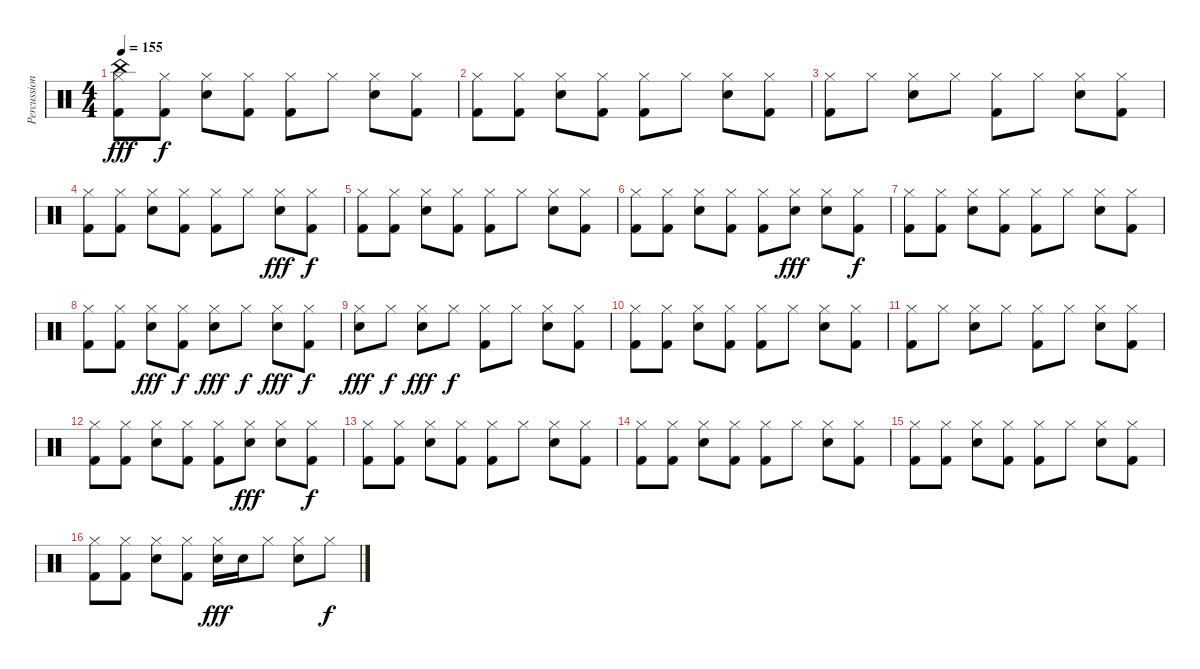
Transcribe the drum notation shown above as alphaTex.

\track ("Percussions" "Percussion") {instrument percussion}
\staff {score}
\articulation defaults
\ts (4 4)
\tempo 155
\clef neutral
\ks c
("Hi-Hat (closed)" "Kick (hit) 2" "China (hit)").8{dy fff} ("Hi-Hat (closed)" "Kick (hit) 2").8{dy f} ("Hi-Hat (closed)" "Electric Snare (hit)").8 ("Hi-Hat (closed)" "Kick (hit) 2").8 ("Hi-Hat (closed)" "Kick (hit) 2").8 "Hi-Hat (closed)".8 ("Hi-Hat (closed)" "Electric Snare (hit)").8 ("Hi-Hat (closed)" "Kick (hit) 2").8 |
("Hi-Hat (closed)" "Kick (hit) 2").8 ("Hi-Hat (closed)" "Kick (hit) 2").8 ("Hi-Hat (closed)" "Electric Snare (hit)").8 ("Hi-Hat (closed)" "Kick (hit) 2").8 ("Hi-Hat (closed)" "Kick (hit) 2").8 "Hi-Hat (closed)".8 ("Hi-Hat (closed)" "Electric Snare (hit)").8 ("Hi-Hat (closed)" "Kick (hit) 2").8 |
("Hi-Hat (closed)" "Kick (hit) 2").8 "Hi-Hat (closed)".8 ("Hi-Hat (closed)" "Electric Snare (hit)").8 "Hi-Hat (closed)".8 ("Hi-Hat (closed)" "Kick (hit) 2").8 "Hi-Hat (closed)".8 ("Hi-Hat (closed)" "Electric Snare (hit)").8 ("Hi-Hat (closed)" "Kick (hit) 2").8 |
("Hi-Hat (closed)" "Kick (hit) 2").8 ("Hi-Hat (closed)" "Kick (hit) 2").8 ("Hi-Hat (closed)" "Electric Snare (hit)").8 ("Hi-Hat (closed)" "Kick (hit) 2").8 ("Hi-Hat (closed)" "Kick (hit) 2").8 "Hi-Hat (closed)".8 ("Hi-Hat (closed)" "Electric Snare (hit)").8{dy fff} ("Hi-Hat (closed)" "Kick (hit) 2").8{dy f} |
("Hi-Hat (closed)" "Kick (hit) 2").8 ("Hi-Hat (closed)" "Kick (hit) 2").8 ("Hi-Hat (closed)" "Electric Snare (hit)").8 ("Hi-Hat (closed)" "Kick (hit) 2").8 ("Hi-Hat (closed)" "Kick (hit) 2").8 "Hi-Hat (closed)".8 ("Hi-Hat (closed)" "Electric Snare (hit)").8 ("Hi-Hat (closed)" "Kick (hit) 2").8 |
("Hi-Hat (closed)" "Kick (hit) 2").8 ("Hi-Hat (closed)" "Kick (hit) 2").8 ("Hi-Hat (closed)" "Electric Snare (hit)").8 ("Hi-Hat (closed)" "Kick (hit) 2").8 ("Hi-Hat (closed)" "Kick (hit) 2").8 ("Hi-Hat (closed)" "Electric Snare (hit)").8{dy fff} ("Hi-Hat (closed)" "Electric Snare (hit)").8 ("Hi-Hat (closed)" "Kick (hit) 2").8{dy f} |
("Hi-Hat (closed)" "Kick (hit) 2").8 ("Hi-Hat (closed)" "Kick (hit) 2").8 ("Hi-Hat (closed)" "Electric Snare (hit)").8 ("Hi-Hat (closed)" "Kick (hit) 2").8 ("Hi-Hat (closed)" "Kick (hit) 2").8 "Hi-Hat (closed)".8 ("Hi-Hat (closed)" "Electric Snare (hit)").8 ("Hi-Hat (closed)" "Kick (hit) 2").8 |
("Hi-Hat (closed)" "Kick (hit) 2").8 ("Hi-Hat (closed)" "Kick (hit) 2").8 ("Hi-Hat (closed)" "Electric Snare (hit)").8{dy fff} ("Hi-Hat (closed)" "Kick (hit) 2").8{dy f} ("Hi-Hat (closed)" "Electric Snare (hit)").8{dy fff} "Hi-Hat (closed)".8{dy f} ("Hi-Hat (closed)" "Electric Snare (hit)").8{dy fff} ("Hi-Hat (closed)" "Kick (hit) 2").8{dy f} |
("Hi-Hat (closed)" "Electric Snare (hit)").8{dy fff} "Hi-Hat (closed)".8{dy f} ("Hi-Hat (closed)" "Electric Snare (hit)").8{dy fff} "Hi-Hat (closed)".8{dy f} ("Hi-Hat (closed)" "Kick (hit) 2").8 "Hi-Hat (closed)".8 ("Hi-Hat (closed)" "Electric Snare (hit)").8 ("Hi-Hat (closed)" "Kick (hit) 2").8 |
("Hi-Hat (closed)" "Kick (hit) 2").8 ("Hi-Hat (closed)" "Kick (hit) 2").8 ("Hi-Hat (closed)" "Electric Snare (hit)").8 ("Hi-Hat (closed)" "Kick (hit) 2").8 ("Hi-Hat (closed)" "Kick (hit) 2").8 "Hi-Hat (closed)".8 ("Hi-Hat (closed)" "Electric Snare (hit)").8 ("Hi-Hat (closed)" "Kick (hit) 2").8 |
("Hi-Hat (closed)" "Kick (hit) 2").8 "Hi-Hat (closed)".8 ("Hi-Hat (closed)" "Electric Snare (hit)").8 "Hi-Hat (closed)".8 ("Hi-Hat (closed)" "Kick (hit) 2").8 "Hi-Hat (closed)".8 ("Hi-Hat (closed)" "Electric Snare (hit)").8 ("Hi-Hat (closed)" "Kick (hit) 2").8 |
("Hi-Hat (closed)" "Kick (hit) 2").8 ("Hi-Hat (closed)" "Kick (hit) 2").8 ("Hi-Hat (closed)" "Electric Snare (hit)").8 ("Hi-Hat (closed)" "Kick (hit) 2").8 ("Hi-Hat (closed)" "Kick (hit) 2").8 ("Hi-Hat (closed)" "Electric Snare (hit)").8{dy fff} ("Hi-Hat (closed)" "Electric Snare (hit)").8 ("Hi-Hat (closed)" "Kick (hit) 2").8{dy f} |
("Hi-Hat (closed)" "Kick (hit) 2").8 ("Hi-Hat (closed)" "Kick (hit) 2").8 ("Hi-Hat (closed)" "Electric Snare (hit)").8 ("Hi-Hat (closed)" "Kick (hit) 2").8 ("Hi-Hat (closed)" "Kick (hit) 2").8 "Hi-Hat (closed)".8 ("Hi-Hat (closed)" "Electric Snare (hit)").8 ("Hi-Hat (closed)" "Kick (hit) 2").8 |
("Hi-Hat (closed)" "Kick (hit) 2").8 ("Hi-Hat (closed)" "Kick (hit) 2").8 ("Hi-Hat (closed)" "Electric Snare (hit)").8 ("Hi-Hat (closed)" "Kick (hit) 2").8 ("Hi-Hat (closed)" "Kick (hit) 2").8 "Hi-Hat (closed)".8 ("Hi-Hat (closed)" "Electric Snare (hit)").8 ("Hi-Hat (closed)" "Kick (hit) 2").8 |
("Hi-Hat (closed)" "Kick (hit) 2").8 ("Hi-Hat (closed)" "Kick (hit) 2").8 ("Hi-Hat (closed)" "Electric Snare (hit)").8 ("Hi-Hat (closed)" "Kick (hit) 2").8 ("Hi-Hat (closed)" "Kick (hit) 2").8 "Hi-Hat (closed)".8 ("Hi-Hat (closed)" "Electric Snare (hit)").8 ("Hi-Hat (closed)" "Kick (hit) 2").8 |
("Hi-Hat (closed)" "Kick (hit) 2").8 ("Hi-Hat (closed)" "Kick (hit) 2").8 ("Hi-Hat (closed)" "Electric Snare (hit)").8 ("Hi-Hat (closed)" "Kick (hit) 2").8 ("Hi-Hat (closed)" "Electric Snare (hit)").16{dy fff} "Electric Snare (hit)".16 "Hi-Hat (closed)".8 ("Hi-Hat (closed)" "Electric Snare (hit)").8 "Hi-Hat (closed)".8{dy f}
